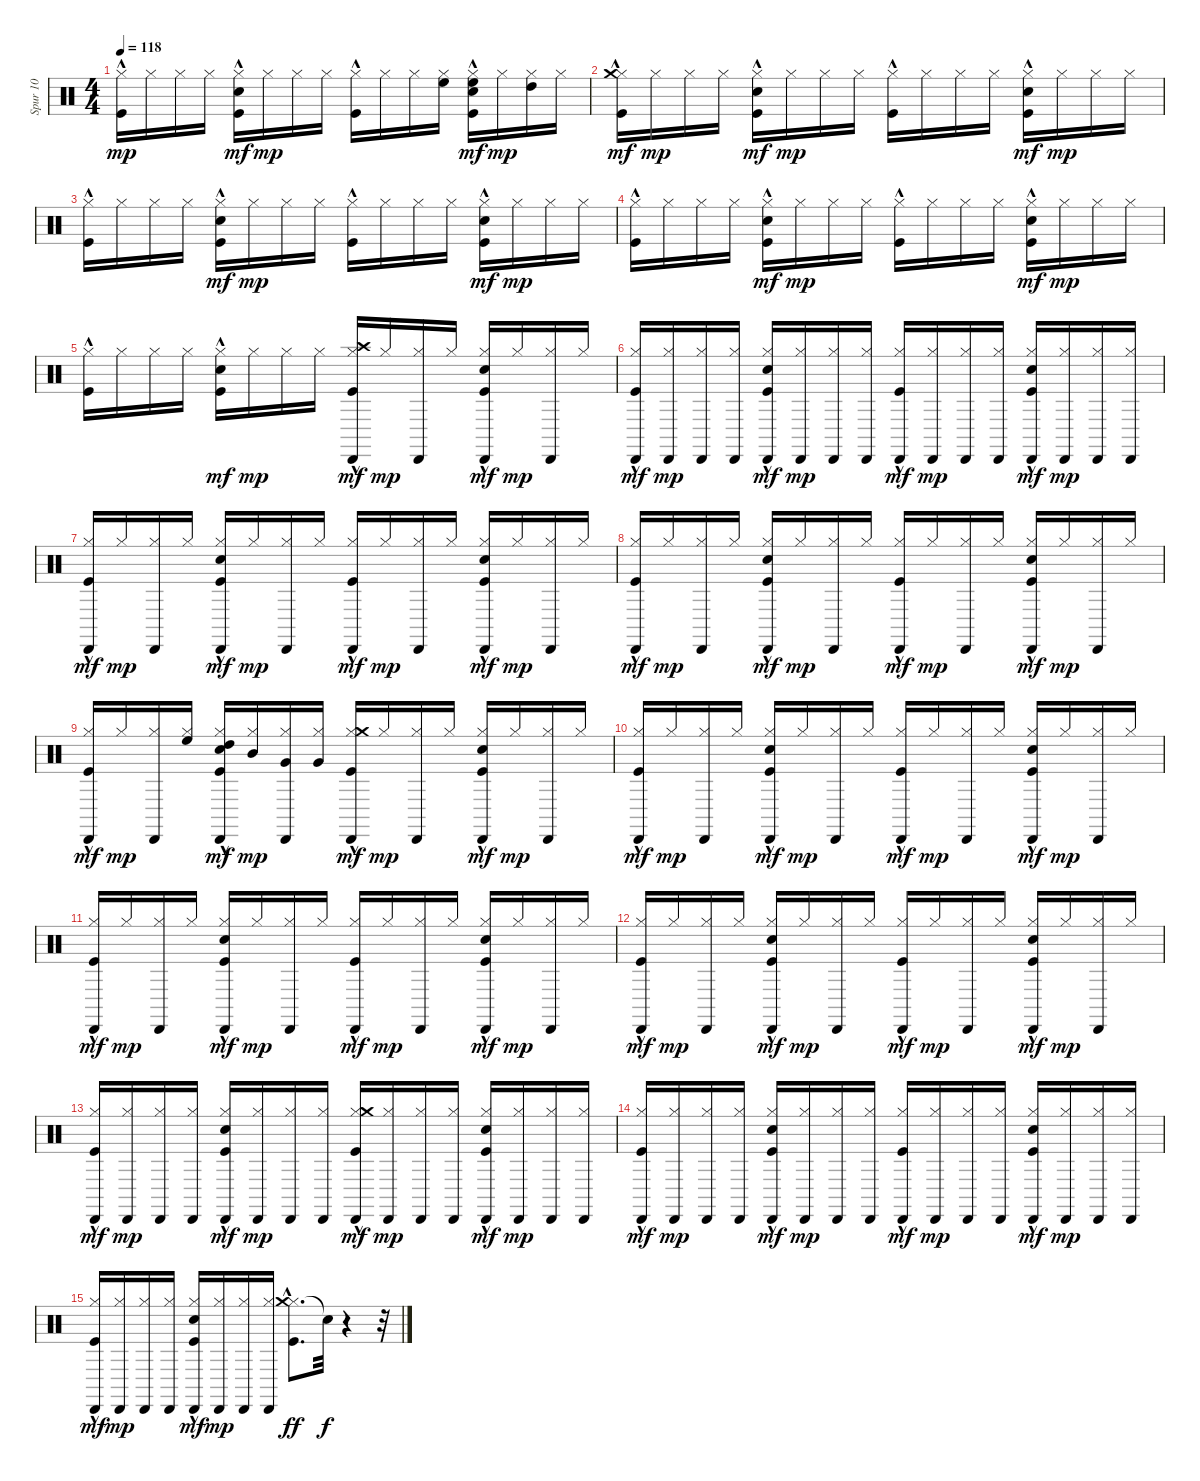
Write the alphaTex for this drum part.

\track ("Spur 10" "Spur 10") {instrument percussion}
\staff {score}
\articulation defaults
\ts (4 4)
\tempo 118
\clef neutral
\ks c
("Hi-Hat (closed)" "Kick (hit)"{hac}).16{dy mp} "Hi-Hat (closed)".16 "Hi-Hat (closed)".16 "Hi-Hat (closed)".16 ("Hi-Hat (closed)" "Kick (hit)"{hac} "Electric Snare (hit)").16{dy mf} "Hi-Hat (closed)".16{dy mp} "Hi-Hat (closed)".16 "Hi-Hat (closed)".16 ("Hi-Hat (closed)" "Kick (hit)"{hac}).16 "Hi-Hat (closed)".16 "Hi-Hat (closed)".16 ("Hi-Hat (closed)" "High Floor Tom (hit)").16 ("High Floor Tom (hit)" "Hi-Hat (closed)" "Kick (hit)"{hac} "Electric Snare (hit)").16{dy mf} "Hi-Hat (closed)".16{dy mp} ("Hi-Hat (closed)" "High Tom (hit)").16 "Hi-Hat (closed)".16 |
("Hi-Hat (closed)" "Kick (hit)"{hac} "Crash medium (hit)"{hac}).16{dy mf} "Hi-Hat (closed)".16{dy mp} "Hi-Hat (closed)".16 "Hi-Hat (closed)".16 ("Hi-Hat (closed)" "Kick (hit)"{hac} "Electric Snare (hit)").16{dy mf} "Hi-Hat (closed)".16{dy mp} "Hi-Hat (closed)".16 "Hi-Hat (closed)".16 ("Hi-Hat (closed)" "Kick (hit)"{hac}).16 "Hi-Hat (closed)".16 "Hi-Hat (closed)".16 "Hi-Hat (closed)".16 ("Hi-Hat (closed)" "Kick (hit)"{hac} "Electric Snare (hit)").16{dy mf} "Hi-Hat (closed)".16{dy mp} "Hi-Hat (closed)".16 "Hi-Hat (closed)".16 |
("Hi-Hat (closed)" "Kick (hit)"{hac}).16 "Hi-Hat (closed)".16 "Hi-Hat (closed)".16 "Hi-Hat (closed)".16 ("Hi-Hat (closed)" "Kick (hit)"{hac} "Electric Snare (hit)").16{dy mf} "Hi-Hat (closed)".16{dy mp} "Hi-Hat (closed)".16 "Hi-Hat (closed)".16 ("Hi-Hat (closed)" "Kick (hit)"{hac}).16 "Hi-Hat (closed)".16 "Hi-Hat (closed)".16 "Hi-Hat (closed)".16 ("Hi-Hat (closed)" "Kick (hit)"{hac} "Electric Snare (hit)").16{dy mf} "Hi-Hat (closed)".16{dy mp} "Hi-Hat (closed)".16 "Hi-Hat (closed)".16 |
("Hi-Hat (closed)" "Kick (hit)"{hac}).16 "Hi-Hat (closed)".16 "Hi-Hat (closed)".16 "Hi-Hat (closed)".16 ("Hi-Hat (closed)" "Kick (hit)"{hac} "Electric Snare (hit)").16{dy mf} "Hi-Hat (closed)".16{dy mp} "Hi-Hat (closed)".16 "Hi-Hat (closed)".16 ("Hi-Hat (closed)" "Kick (hit)"{hac}).16 "Hi-Hat (closed)".16 "Hi-Hat (closed)".16 "Hi-Hat (closed)".16 ("Hi-Hat (closed)" "Kick (hit)"{hac} "Electric Snare (hit)").16{dy mf} "Hi-Hat (closed)".16{dy mp} "Hi-Hat (closed)".16 "Hi-Hat (closed)".16 |
("Hi-Hat (closed)" "Kick (hit)"{hac}).16 "Hi-Hat (closed)".16 "Hi-Hat (closed)".16 "Hi-Hat (closed)".16 ("Hi-Hat (closed)" "Kick (hit)"{hac} "Electric Snare (hit)").16{dy mf} "Hi-Hat (closed)".16{dy mp} "Hi-Hat (closed)".16 "Hi-Hat (closed)".16 ("Hi-Hat (closed)" "Kick (hit)"{hac} "Crash high (hit)"{hac} "Cabasa (hit)").16{dy mf} "Hi-Hat (closed)".16{dy mp} ("Hi-Hat (closed)" "Cabasa (hit)").16 "Hi-Hat (closed)".16 ("Hi-Hat (closed)" "Kick (hit)"{hac} "Electric Snare (hit)" "Cabasa (hit)").16{dy mf} "Hi-Hat (closed)".16{dy mp} ("Hi-Hat (closed)" "Cabasa (hit)").16 "Hi-Hat (closed)".16 |
("Hi-Hat (closed)" "Kick (hit)"{hac} "Cabasa (hit)").16{dy mf} ("Hi-Hat (closed)" "Cabasa (hit)").16{dy mp} ("Hi-Hat (closed)" "Cabasa (hit)").16 ("Hi-Hat (closed)" "Cabasa (hit)").16 ("Hi-Hat (closed)" "Kick (hit)"{hac} "Electric Snare (hit)" "Cabasa (hit)").16{dy mf} ("Hi-Hat (closed)" "Cabasa (hit)").16{dy mp} ("Hi-Hat (closed)" "Cabasa (hit)").16 ("Hi-Hat (closed)" "Cabasa (hit)").16 ("Hi-Hat (closed)" "Kick (hit)"{hac} "Cabasa (hit)").16{dy mf} ("Hi-Hat (closed)" "Cabasa (hit)").16{dy mp} ("Hi-Hat (closed)" "Cabasa (hit)").16 ("Hi-Hat (closed)" "Cabasa (hit)").16 ("Hi-Hat (closed)" "Kick (hit)"{hac} "Electric Snare (hit)" "Cabasa (hit)").16{dy mf} ("Hi-Hat (closed)" "Cabasa (hit)").16{dy mp} ("Hi-Hat (closed)" "Cabasa (hit)").16 ("Hi-Hat (closed)" "Cabasa (hit)").16 |
("Hi-Hat (closed)" "Kick (hit)"{hac} "Cabasa (hit)").16{dy mf} "Hi-Hat (closed)".16{dy mp} ("Hi-Hat (closed)" "Cabasa (hit)").16 "Hi-Hat (closed)".16 ("Hi-Hat (closed)" "Kick (hit)"{hac} "Electric Snare (hit)" "Cabasa (hit)").16{dy mf} "Hi-Hat (closed)".16{dy mp} ("Hi-Hat (closed)" "Cabasa (hit)").16 "Hi-Hat (closed)".16 ("Hi-Hat (closed)" "Kick (hit)"{hac} "Cabasa (hit)").16{dy mf} "Hi-Hat (closed)".16{dy mp} ("Hi-Hat (closed)" "Cabasa (hit)").16 "Hi-Hat (closed)".16 ("Hi-Hat (closed)" "Kick (hit)"{hac} "Electric Snare (hit)" "Cabasa (hit)").16{dy mf} "Hi-Hat (closed)".16{dy mp} ("Hi-Hat (closed)" "Cabasa (hit)").16 "Hi-Hat (closed)".16 |
("Hi-Hat (closed)" "Kick (hit)"{hac} "Cabasa (hit)").16{dy mf} "Hi-Hat (closed)".16{dy mp} ("Hi-Hat (closed)" "Cabasa (hit)").16 "Hi-Hat (closed)".16 ("Hi-Hat (closed)" "Kick (hit)"{hac} "Electric Snare (hit)" "Cabasa (hit)").16{dy mf} "Hi-Hat (closed)".16{dy mp} ("Hi-Hat (closed)" "Cabasa (hit)").16 "Hi-Hat (closed)".16 ("Hi-Hat (closed)" "Kick (hit)"{hac} "Cabasa (hit)").16{dy mf} "Hi-Hat (closed)".16{dy mp} ("Hi-Hat (closed)" "Cabasa (hit)").16 "Hi-Hat (closed)".16 ("Hi-Hat (closed)" "Kick (hit)"{hac} "Electric Snare (hit)" "Cabasa (hit)").16{dy mf} "Hi-Hat (closed)".16{dy mp} ("Hi-Hat (closed)" "Cabasa (hit)").16 "Hi-Hat (closed)".16 |
("Hi-Hat (closed)" "Kick (hit)"{hac} "Cabasa (hit)").16{dy mf} "Hi-Hat (closed)".16{dy mp} ("Hi-Hat (closed)" "Cabasa (hit)").16 ("High Floor Tom (hit)" "Hi-Hat (closed)").16 ("High Tom (hit)" "Hi-Hat (closed)" "Kick (hit)"{hac} "Electric Snare (hit)" "Cabasa (hit)").16{dy mf} ("Mid Tom (hit)" "Hi-Hat (closed)").16{dy mp} ("Very Low Tom (hit)" "Hi-Hat (closed)" "Cabasa (hit)").16 ("Very Low Tom (hit)" "Hi-Hat (closed)").16 ("Hi-Hat (closed)" "Kick (hit)"{hac} "Crash medium (hit)"{hac} "Cabasa (hit)").16{dy mf} "Hi-Hat (closed)".16{dy mp} ("Hi-Hat (closed)" "Cabasa (hit)").16 "Hi-Hat (closed)".16 ("Hi-Hat (closed)" "Kick (hit)"{hac} "Electric Snare (hit)" "Cabasa (hit)").16{dy mf} "Hi-Hat (closed)".16{dy mp} ("Hi-Hat (closed)" "Cabasa (hit)").16 "Hi-Hat (closed)".16 |
("Hi-Hat (closed)" "Kick (hit)"{hac} "Cabasa (hit)").16{dy mf} "Hi-Hat (closed)".16{dy mp} ("Hi-Hat (closed)" "Cabasa (hit)").16 "Hi-Hat (closed)".16 ("Hi-Hat (closed)" "Kick (hit)"{hac} "Electric Snare (hit)" "Cabasa (hit)").16{dy mf} "Hi-Hat (closed)".16{dy mp} ("Hi-Hat (closed)" "Cabasa (hit)").16 "Hi-Hat (closed)".16 ("Hi-Hat (closed)" "Kick (hit)"{hac} "Cabasa (hit)").16{dy mf} "Hi-Hat (closed)".16{dy mp} ("Hi-Hat (closed)" "Cabasa (hit)").16 "Hi-Hat (closed)".16 ("Hi-Hat (closed)" "Kick (hit)"{hac} "Electric Snare (hit)" "Cabasa (hit)").16{dy mf} "Hi-Hat (closed)".16{dy mp} ("Hi-Hat (closed)" "Cabasa (hit)").16 "Hi-Hat (closed)".16 |
("Hi-Hat (closed)" "Kick (hit)"{hac} "Cabasa (hit)").16{dy mf} "Hi-Hat (closed)".16{dy mp} ("Hi-Hat (closed)" "Cabasa (hit)").16 "Hi-Hat (closed)".16 ("Hi-Hat (closed)" "Kick (hit)"{hac} "Electric Snare (hit)" "Cabasa (hit)").16{dy mf} "Hi-Hat (closed)".16{dy mp} ("Hi-Hat (closed)" "Cabasa (hit)").16 "Hi-Hat (closed)".16 ("Hi-Hat (closed)" "Kick (hit)"{hac} "Cabasa (hit)").16{dy mf} "Hi-Hat (closed)".16{dy mp} ("Hi-Hat (closed)" "Cabasa (hit)").16 "Hi-Hat (closed)".16 ("Hi-Hat (closed)" "Kick (hit)"{hac} "Electric Snare (hit)" "Cabasa (hit)").16{dy mf} "Hi-Hat (closed)".16{dy mp} ("Hi-Hat (closed)" "Cabasa (hit)").16 "Hi-Hat (closed)".16 |
("Hi-Hat (closed)" "Kick (hit)"{hac} "Cabasa (hit)").16{dy mf} "Hi-Hat (closed)".16{dy mp} ("Hi-Hat (closed)" "Cabasa (hit)").16 "Hi-Hat (closed)".16 ("Hi-Hat (closed)" "Kick (hit)"{hac} "Electric Snare (hit)" "Cabasa (hit)").16{dy mf} "Hi-Hat (closed)".16{dy mp} ("Hi-Hat (closed)" "Cabasa (hit)").16 "Hi-Hat (closed)".16 ("Hi-Hat (closed)" "Kick (hit)"{hac} "Cabasa (hit)").16{dy mf} "Hi-Hat (closed)".16{dy mp} ("Hi-Hat (closed)" "Cabasa (hit)").16 "Hi-Hat (closed)".16 ("Hi-Hat (closed)" "Kick (hit)"{hac} "Electric Snare (hit)" "Cabasa (hit)").16{dy mf} "Hi-Hat (closed)".16{dy mp} ("Hi-Hat (closed)" "Cabasa (hit)").16 "Hi-Hat (closed)".16 |
("Hi-Hat (closed)" "Kick (hit)"{hac} "Cabasa (hit)").16{dy mf} ("Hi-Hat (closed)" "Cabasa (hit)").16{dy mp} ("Hi-Hat (closed)" "Cabasa (hit)").16 ("Hi-Hat (closed)" "Cabasa (hit)").16 ("Hi-Hat (closed)" "Kick (hit)"{hac} "Electric Snare (hit)" "Cabasa (hit)").16{dy mf} ("Hi-Hat (closed)" "Cabasa (hit)").16{dy mp} ("Hi-Hat (closed)" "Cabasa (hit)").16 ("Hi-Hat (closed)" "Cabasa (hit)").16 ("Hi-Hat (closed)" "Kick (hit)"{hac} "Cabasa (hit)" "Crash medium (hit)").16{dy mf} ("Hi-Hat (closed)" "Cabasa (hit)").16{dy mp} ("Hi-Hat (closed)" "Cabasa (hit)").16 ("Hi-Hat (closed)" "Cabasa (hit)").16 ("Hi-Hat (closed)" "Kick (hit)"{hac} "Electric Snare (hit)" "Cabasa (hit)").16{dy mf} ("Hi-Hat (closed)" "Cabasa (hit)").16{dy mp} ("Hi-Hat (closed)" "Cabasa (hit)").16 ("Hi-Hat (closed)" "Cabasa (hit)").16 |
("Hi-Hat (closed)" "Kick (hit)"{hac} "Cabasa (hit)").16{dy mf} ("Hi-Hat (closed)" "Cabasa (hit)").16{dy mp} ("Hi-Hat (closed)" "Cabasa (hit)").16 ("Hi-Hat (closed)" "Cabasa (hit)").16 ("Hi-Hat (closed)" "Kick (hit)"{hac} "Electric Snare (hit)" "Cabasa (hit)").16{dy mf} ("Hi-Hat (closed)" "Cabasa (hit)").16{dy mp} ("Hi-Hat (closed)" "Cabasa (hit)").16 ("Hi-Hat (closed)" "Cabasa (hit)").16 ("Hi-Hat (closed)" "Kick (hit)"{hac} "Cabasa (hit)").16{dy mf} ("Hi-Hat (closed)" "Cabasa (hit)").16{dy mp} ("Hi-Hat (closed)" "Cabasa (hit)").16 ("Hi-Hat (closed)" "Cabasa (hit)").16 ("Hi-Hat (closed)" "Kick (hit)"{hac} "Electric Snare (hit)" "Cabasa (hit)").16{dy mf} ("Hi-Hat (closed)" "Cabasa (hit)").16{dy mp} ("Hi-Hat (closed)" "Cabasa (hit)").16 ("Hi-Hat (closed)" "Cabasa (hit)").16 |
("Hi-Hat (closed)" "Kick (hit)"{hac} "Cabasa (hit)").16{dy mf} ("Hi-Hat (closed)" "Cabasa (hit)").16{dy mp} ("Hi-Hat (closed)" "Cabasa (hit)").16 ("Hi-Hat (closed)" "Cabasa (hit)").16 ("Hi-Hat (closed)" "Kick (hit)"{hac} "Electric Snare (hit)" "Cabasa (hit)").16{dy mf} ("Hi-Hat (closed)" "Cabasa (hit)").16{dy mp} ("Hi-Hat (closed)" "Cabasa (hit)").16 ("Hi-Hat (closed)" "Cabasa (hit)").16 ("Hi-Hat (closed)" "Kick (hit)"{hac} "Crash medium (hit)").8{d dy ff} "Snare (hit)"{t}.32{dy f} r.4 r.32
